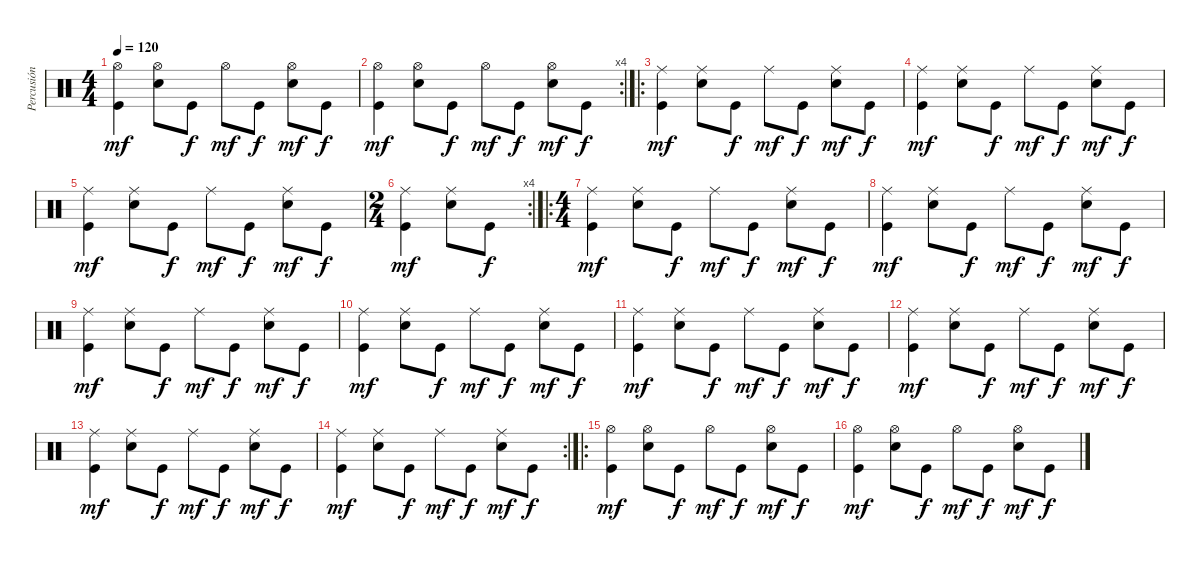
\track ("Percusión" "Percusión") {instrument percussion}
\staff {score}
\articulation defaults
\ts (4 4)
\tempo 120
\clef neutral
\ks c
("Kick (hit)" "Hi-Hat (open)").4{dy mf} ("Electric Snare (hit)" "Hi-Hat (open)").8 "Kick (hit)".8{dy f} "Hi-Hat (open)".8{dy mf} "Kick (hit)".8{dy f} ("Electric Snare (hit)" "Hi-Hat (open)").8{dy mf} "Kick (hit)".8{dy f} |
\rc 4
("Kick (hit)" "Hi-Hat (open)").4{dy mf} ("Electric Snare (hit)" "Hi-Hat (open)").8 "Kick (hit)".8{dy f} "Hi-Hat (open)".8{dy mf} "Kick (hit)".8{dy f} ("Electric Snare (hit)" "Hi-Hat (open)").8{dy mf} "Kick (hit)".8{dy f} |
\ro
("Kick (hit)" "Ride (middle)").4{dy mf} ("Electric Snare (hit)" "Ride (middle)").8 "Kick (hit)".8{dy f} "Ride (middle)".8{dy mf} "Kick (hit)".8{dy f} ("Electric Snare (hit)" "Ride (middle)").8{dy mf} "Kick (hit)".8{dy f} |
("Kick (hit)" "Ride (middle)").4{dy mf} ("Electric Snare (hit)" "Ride (middle)").8 "Kick (hit)".8{dy f} "Ride (middle)".8{dy mf} "Kick (hit)".8{dy f} ("Electric Snare (hit)" "Ride (middle)").8{dy mf} "Kick (hit)".8{dy f} |
("Kick (hit)" "Ride (middle)").4{dy mf} ("Electric Snare (hit)" "Ride (middle)").8 "Kick (hit)".8{dy f} "Ride (middle)".8{dy mf} "Kick (hit)".8{dy f} ("Electric Snare (hit)" "Ride (middle)").8{dy mf} "Kick (hit)".8{dy f} |
\rc 4
\ts (2 4)
("Kick (hit)" "Ride (middle)").4{dy mf} ("Electric Snare (hit)" "Ride (middle)").8 "Kick (hit)".8{dy f} |
\ro
\ts (4 4)
("Kick (hit)" "Ride (middle)").4{dy mf} ("Electric Snare (hit)" "Ride (middle)").8 "Kick (hit)".8{dy f} "Ride (middle)".8{dy mf} "Kick (hit)".8{dy f} ("Electric Snare (hit)" "Ride (middle)").8{dy mf} "Kick (hit)".8{dy f} |
("Kick (hit)" "Ride (middle)").4{dy mf} ("Electric Snare (hit)" "Ride (middle)").8 "Kick (hit)".8{dy f} "Ride (middle)".8{dy mf} "Kick (hit)".8{dy f} ("Electric Snare (hit)" "Ride (middle)").8{dy mf} "Kick (hit)".8{dy f} |
("Kick (hit)" "Ride (middle)").4{dy mf} ("Electric Snare (hit)" "Ride (middle)").8 "Kick (hit)".8{dy f} "Ride (middle)".8{dy mf} "Kick (hit)".8{dy f} ("Electric Snare (hit)" "Ride (middle)").8{dy mf} "Kick (hit)".8{dy f} |
("Kick (hit)" "Ride (middle)").4{dy mf} ("Electric Snare (hit)" "Ride (middle)").8 "Kick (hit)".8{dy f} "Ride (middle)".8{dy mf} "Kick (hit)".8{dy f} ("Electric Snare (hit)" "Ride (middle)").8{dy mf} "Kick (hit)".8{dy f} |
("Kick (hit)" "Ride (middle)").4{dy mf} ("Electric Snare (hit)" "Ride (middle)").8 "Kick (hit)".8{dy f} "Ride (middle)".8{dy mf} "Kick (hit)".8{dy f} ("Electric Snare (hit)" "Ride (middle)").8{dy mf} "Kick (hit)".8{dy f} |
("Kick (hit)" "Ride (middle)").4{dy mf} ("Electric Snare (hit)" "Ride (middle)").8 "Kick (hit)".8{dy f} "Ride (middle)".8{dy mf} "Kick (hit)".8{dy f} ("Electric Snare (hit)" "Ride (middle)").8{dy mf} "Kick (hit)".8{dy f} |
("Kick (hit)" "Ride (middle)").4{dy mf} ("Electric Snare (hit)" "Ride (middle)").8 "Kick (hit)".8{dy f} "Ride (middle)".8{dy mf} "Kick (hit)".8{dy f} ("Electric Snare (hit)" "Ride (middle)").8{dy mf} "Kick (hit)".8{dy f} |
\rc 2
("Kick (hit)" "Ride (middle)").4{dy mf} ("Electric Snare (hit)" "Ride (middle)").8 "Kick (hit)".8{dy f} "Ride (middle)".8{dy mf} "Kick (hit)".8{dy f} ("Electric Snare (hit)" "Ride (middle)").8{dy mf} "Kick (hit)".8{dy f} |
\ro
("Kick (hit)" "Hi-Hat (open)").4{dy mf} ("Electric Snare (hit)" "Hi-Hat (open)").8 "Kick (hit)".8{dy f} "Hi-Hat (open)".8{dy mf} "Kick (hit)".8{dy f} ("Electric Snare (hit)" "Hi-Hat (open)").8{dy mf} "Kick (hit)".8{dy f} |
("Kick (hit)" "Hi-Hat (open)").4{dy mf} ("Electric Snare (hit)" "Hi-Hat (open)").8 "Kick (hit)".8{dy f} "Hi-Hat (open)".8{dy mf} "Kick (hit)".8{dy f} ("Electric Snare (hit)" "Hi-Hat (open)").8{dy mf} "Kick (hit)".8{dy f}
